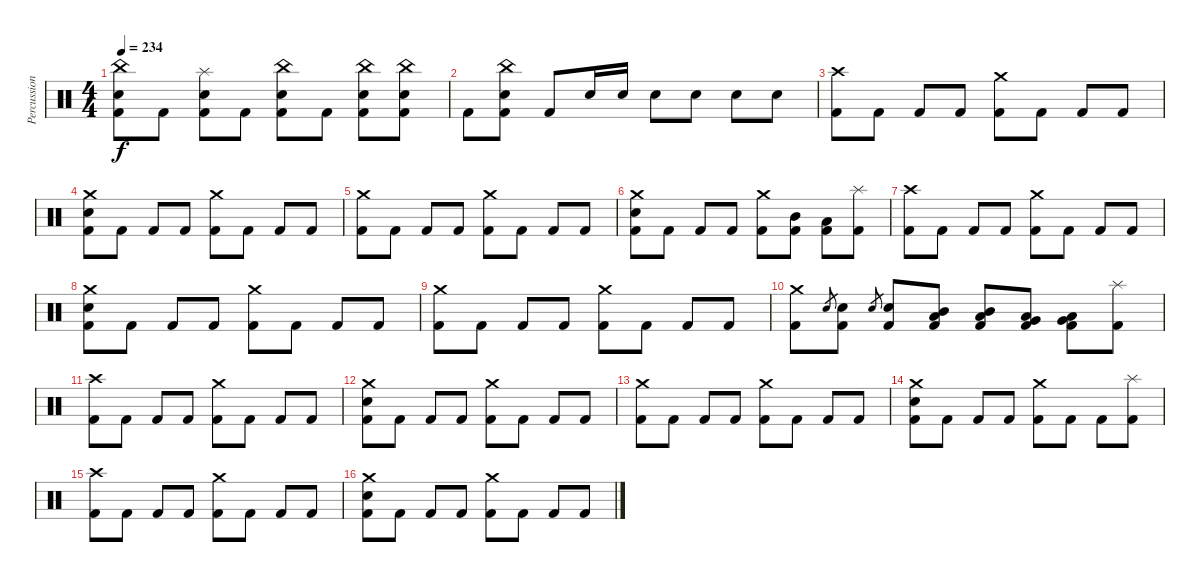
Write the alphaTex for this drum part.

\track ("Percussion" "Percussion") {instrument percussion}
\staff {score}
\articulation defaults
\ts (4 4)
\tempo 234
\clef neutral
\ks c
("China (hit)" "Snare (hit) 2" "Kick (hit) 2").8{dy f} "Kick (hit) 2".8 ("Splash (hit)" "Snare (hit) 2" "Kick (hit) 2").8 "Kick (hit) 2".8 ("China (hit)" "Snare (hit) 2" "Kick (hit) 2").8 "Kick (hit) 2".8 ("China (hit)" "Snare (hit) 2" "Kick (hit) 2").8 ("China (hit)" "Snare (hit) 2" "Kick (hit) 2").8 |
"Kick (hit) 2".8 ("China (hit)" "Snare (hit) 2" "Kick (hit) 2").8 "Kick (hit) 2".8 "Snare (hit) 2".16 "Snare (hit) 2".16 "Snare (hit) 2".8 "Snare (hit) 2".8 "Snare (hit) 2".8 "Snare (hit) 2".8 |
("Crash high (hit)" "Kick (hit) 2").8 "Kick (hit) 2".8 "Kick (hit) 2".8 "Kick (hit) 2".8 ("Crash medium (hit)" "Kick (hit) 2").8 "Kick (hit) 2".8 "Kick (hit) 2".8 "Kick (hit) 2".8 |
("Crash medium (hit)" "Snare (hit) 2" "Kick (hit) 2").8 "Kick (hit) 2".8 "Kick (hit) 2".8 "Kick (hit) 2".8 ("Crash medium (hit)" "Kick (hit) 2").8 "Kick (hit) 2".8 "Kick (hit) 2".8 "Kick (hit) 2".8 |
("Crash medium (hit)" "Kick (hit) 2").8 "Kick (hit) 2".8 "Kick (hit) 2".8 "Kick (hit) 2".8 ("Crash medium (hit)" "Kick (hit) 2").8 "Kick (hit) 2".8 "Kick (hit) 2".8 "Kick (hit) 2".8 |
("Crash medium (hit)" "Snare (hit) 2" "Kick (hit) 2").8 "Kick (hit) 2".8 "Kick (hit) 2".8 "Kick (hit) 2".8 ("Crash medium (hit)" "Kick (hit) 2").8 ("Mid Tom (hit)" "Kick (hit) 2").8 ("Low Tom (hit)" "Kick (hit) 2").8 ("Splash (hit)" "Kick (hit) 2").8 |
("Crash high (hit)" "Kick (hit) 2").8 "Kick (hit) 2".8 "Kick (hit) 2".8 "Kick (hit) 2".8 ("Crash medium (hit)" "Kick (hit) 2").8 "Kick (hit) 2".8 "Kick (hit) 2".8 "Kick (hit) 2".8 |
("Crash medium (hit)" "Snare (hit) 2" "Kick (hit) 2").8 "Kick (hit) 2".8 "Kick (hit) 2".8 "Kick (hit) 2".8 ("Crash medium (hit)" "Kick (hit) 2").8 "Kick (hit) 2".8 "Kick (hit) 2".8 "Kick (hit) 2".8 |
("Crash medium (hit)" "Kick (hit) 2").8 "Kick (hit) 2".8 "Kick (hit) 2".8 "Kick (hit) 2".8 ("Crash medium (hit)" "Kick (hit) 2").8 "Kick (hit) 2".8 "Kick (hit) 2".8 "Kick (hit) 2".8 |
("Crash medium (hit)" "Kick (hit) 2").8 "Snare (hit) 2".8{gr} ("Snare (hit) 2" "Kick (hit) 2").8 "Snare (hit) 2".8{gr} ("Snare (hit) 2" "Kick (hit) 2").8 ("Mid Tom (hit)" "Low Tom (hit)" "Kick (hit) 2").8 ("Mid Tom (hit)" "Low Tom (hit)" "Kick (hit) 2").8 ("Low Tom (hit)" "Very Low Tom (hit)" "Kick (hit) 2").8 ("Low Tom (hit)" "Very Low Tom (hit)" "Kick (hit) 2").8 ("Splash (hit)" "Kick (hit) 2").8 |
("Crash high (hit)" "Kick (hit) 2").8 "Kick (hit) 2".8 "Kick (hit) 2".8 "Kick (hit) 2".8 ("Crash medium (hit)" "Kick (hit) 2").8 "Kick (hit) 2".8 "Kick (hit) 2".8 "Kick (hit) 2".8 |
("Crash medium (hit)" "Snare (hit) 2" "Kick (hit) 2").8 "Kick (hit) 2".8 "Kick (hit) 2".8 "Kick (hit) 2".8 ("Crash medium (hit)" "Kick (hit) 2").8 "Kick (hit) 2".8 "Kick (hit) 2".8 "Kick (hit) 2".8 |
("Crash medium (hit)" "Kick (hit) 2").8 "Kick (hit) 2".8 "Kick (hit) 2".8 "Kick (hit) 2".8 ("Crash medium (hit)" "Kick (hit) 2").8 "Kick (hit) 2".8 "Kick (hit) 2".8 "Kick (hit) 2".8 |
("Crash medium (hit)" "Snare (hit) 2" "Kick (hit) 2").8 "Kick (hit) 2".8 "Kick (hit) 2".8 "Kick (hit) 2".8 ("Crash medium (hit)" "Kick (hit) 2").8 "Kick (hit) 2".8 "Kick (hit) 2".8 ("Splash (hit)" "Kick (hit) 2").8 |
("Crash high (hit)" "Kick (hit) 2").8 "Kick (hit) 2".8 "Kick (hit) 2".8 "Kick (hit) 2".8 ("Crash medium (hit)" "Kick (hit) 2").8 "Kick (hit) 2".8 "Kick (hit) 2".8 "Kick (hit) 2".8 |
("Crash medium (hit)" "Snare (hit) 2" "Kick (hit) 2").8 "Kick (hit) 2".8 "Kick (hit) 2".8 "Kick (hit) 2".8 ("Crash medium (hit)" "Kick (hit) 2").8 "Kick (hit) 2".8 "Kick (hit) 2".8 "Kick (hit) 2".8
